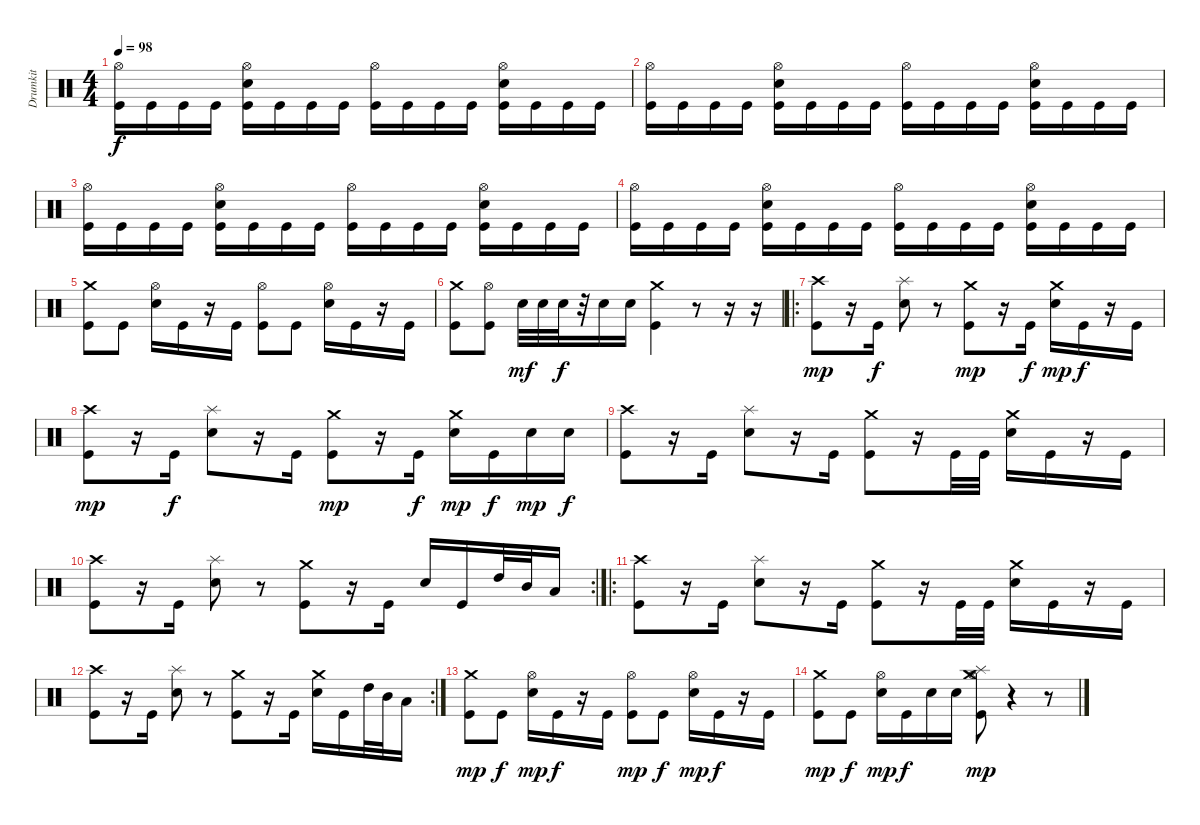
\track ("Drumkit" "Drumkit") {instrument percussion}
\staff {score}
\articulation defaults
\ts (4 4)
\tempo 98
\clef neutral
\ks c
("Hi-Hat (open)" "Kick (hit)").16{dy f} "Kick (hit)".16 "Kick (hit)".16 "Kick (hit)".16 ("Hi-Hat (open)" "Snare (hit) 2" "Kick (hit)").16 "Kick (hit)".16 "Kick (hit)".16 "Kick (hit)".16 ("Hi-Hat (open)" "Kick (hit)").16 "Kick (hit)".16 "Kick (hit)".16 "Kick (hit)".16 ("Hi-Hat (open)" "Snare (hit) 2" "Kick (hit)").16 "Kick (hit)".16 "Kick (hit)".16 "Kick (hit)".16 |
("Hi-Hat (open)" "Kick (hit)").16 "Kick (hit)".16 "Kick (hit)".16 "Kick (hit)".16 ("Hi-Hat (open)" "Snare (hit) 2" "Kick (hit)").16 "Kick (hit)".16 "Kick (hit)".16 "Kick (hit)".16 ("Hi-Hat (open)" "Kick (hit)").16 "Kick (hit)".16 "Kick (hit)".16 "Kick (hit)".16 ("Hi-Hat (open)" "Snare (hit) 2" "Kick (hit)").16 "Kick (hit)".16 "Kick (hit)".16 "Kick (hit)".16 |
("Hi-Hat (open)" "Kick (hit)").16 "Kick (hit)".16 "Kick (hit)".16 "Kick (hit)".16 ("Hi-Hat (open)" "Snare (hit) 2" "Kick (hit)").16 "Kick (hit)".16 "Kick (hit)".16 "Kick (hit)".16 ("Hi-Hat (open)" "Kick (hit)").16 "Kick (hit)".16 "Kick (hit)".16 "Kick (hit)".16 ("Hi-Hat (open)" "Snare (hit) 2" "Kick (hit)").16 "Kick (hit)".16 "Kick (hit)".16 "Kick (hit)".16 |
("Hi-Hat (open)" "Kick (hit)").16 "Kick (hit)".16 "Kick (hit)".16 "Kick (hit)".16 ("Hi-Hat (open)" "Snare (hit) 2" "Kick (hit)").16 "Kick (hit)".16 "Kick (hit)".16 "Kick (hit)".16 ("Hi-Hat (open)" "Kick (hit)").16 "Kick (hit)".16 "Kick (hit)".16 "Kick (hit)".16 ("Hi-Hat (open)" "Snare (hit) 2" "Kick (hit)").16 "Kick (hit)".16 "Kick (hit)".16 "Kick (hit)".16 |
("Crash medium (hit)" "Kick (hit)").8 "Kick (hit)".8 ("Hi-Hat (open)" "Snare (hit) 2").16 "Kick (hit)".16 r.16 "Kick (hit)".16 ("Hi-Hat (open)" "Kick (hit)").8 "Kick (hit)".8 ("Hi-Hat (open)" "Snare (hit) 2").16 "Kick (hit)".16 r.16 "Kick (hit)".16 |
("Crash medium (hit)" "Kick (hit)").8 ("Hi-Hat (open)" "Kick (hit)").8 "Snare (hit) 2".32{dy mf} "Snare (hit) 2".32 "Snare (hit) 2".32{dy f} r.32 "Snare (hit) 2".16 "Snare (hit) 2".16 ("Crash medium (hit)" "Kick (hit)").4 r.8 r.16 r.16 |
\ro
("Crash high (hit)" "Kick (hit)").8{dy mp} r.16 "Kick (hit)".16{dy f} ("Splash (hit)" "Snare (hit) 2").8 r.8 ("Crash medium (hit)" "Kick (hit)").8{dy mp} r.16 "Kick (hit)".16{dy f} ("Crash medium (hit)" "Snare (hit) 2").16{dy mp} "Kick (hit)".16{dy f} r.16 "Kick (hit)".16 |
("Crash high (hit)" "Kick (hit)").8{dy mp} r.16 "Kick (hit)".16{dy f} ("Splash (hit)" "Snare (hit) 2").8 r.16 "Kick (hit)".16 ("Crash medium (hit)" "Kick (hit)").8{dy mp} r.16 "Kick (hit)".16{dy f} ("Crash medium (hit)" "Snare (hit) 2").16{dy mp} "Kick (hit)".16{dy f} "Snare (hit) 2".16{dy mp} "Snare (hit) 2".16{dy f} |
("Crash high (hit)" "Kick (hit)").8 r.16 "Kick (hit)".16 ("Splash (hit)" "Snare (hit) 2").8 r.16 "Kick (hit)".16 ("Crash medium (hit)" "Kick (hit)").8 r.16 "Kick (hit)".32 "Kick (hit)".32 ("Crash medium (hit)" "Snare (hit) 2").16 "Kick (hit)".16 r.16 "Kick (hit)".16 |
\rc 2
("Crash high (hit)" "Kick (hit)").8 r.16 "Kick (hit)".16 ("Splash (hit)" "Snare (hit) 2").8 r.8 ("Crash medium (hit)" "Kick (hit)").8 r.16 "Kick (hit)".16 "Snare (hit) 2".16 "Kick (hit)".16 "High Tom (hit)".32 "Mid Tom (hit)".32 "Low Tom (hit)".16 |
\ro
("Crash high (hit)" "Kick (hit)").8 r.16 "Kick (hit)".16 ("Splash (hit)" "Snare (hit) 2").8 r.16 "Kick (hit)".16 ("Crash medium (hit)" "Kick (hit)").8 r.16 "Kick (hit)".32 "Kick (hit)".32 ("Crash medium (hit)" "Snare (hit) 2").16 "Kick (hit)".16 r.16 "Kick (hit)".16 |
\rc 2
("Crash high (hit)" "Kick (hit)").8 r.16 "Kick (hit)".16 ("Splash (hit)" "Snare (hit) 2").8 r.8 ("Crash medium (hit)" "Kick (hit)").8 r.16 "Kick (hit)".16 ("Crash medium (hit)" "Snare (hit) 2").16 "Kick (hit)".16 "High Tom (hit)".32 "Mid Tom (hit)".32 "Low Tom (hit)".16 |
("Crash medium (hit)" "Kick (hit)").8{dy mp} "Kick (hit)".8{dy f} ("Hi-Hat (open)" "Snare (hit) 2").16{dy mp} "Kick (hit)".16{dy f} r.16 "Kick (hit)".16 ("Hi-Hat (open)" "Kick (hit)").8{dy mp} "Kick (hit)".8{dy f} ("Hi-Hat (open)" "Snare (hit) 2").16{dy mp} "Kick (hit)".16{dy f} r.16 "Kick (hit)".16 |
("Crash medium (hit)" "Kick (hit)").8{dy mp} "Kick (hit)".8{dy f} ("Hi-Hat (open)" "Snare (hit) 2").16{dy mp} "Kick (hit)".16{dy f} "Snare (hit) 2".16 "Snare (hit) 2".16 ("Hi-Hat (open)" "Crash medium (hit)" "Splash (hit)" "Kick (hit)").8{dy mp} r.4 r.8
